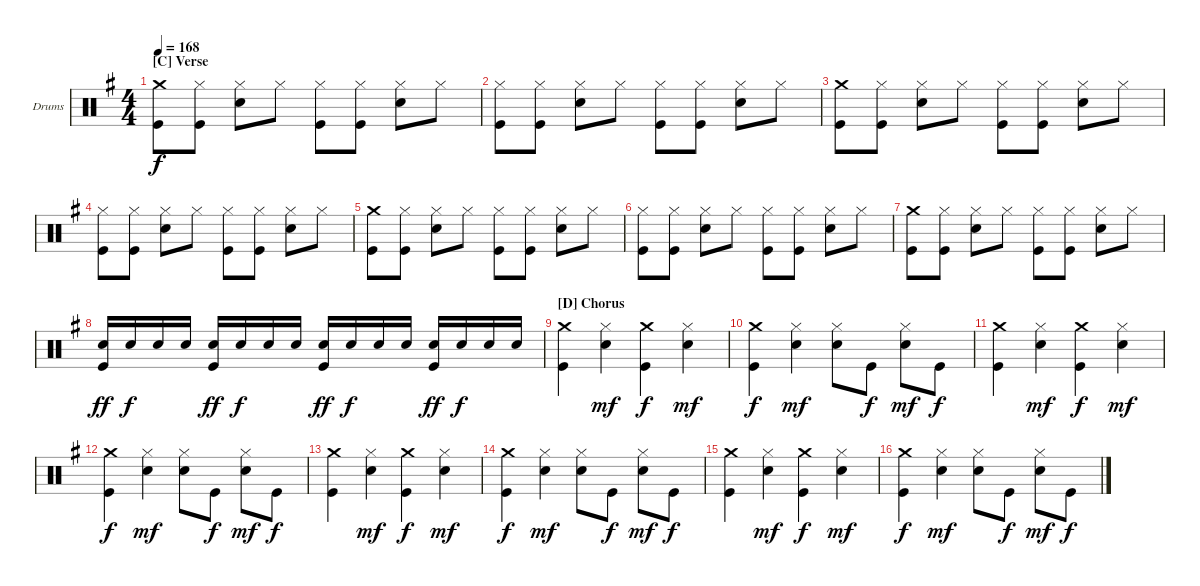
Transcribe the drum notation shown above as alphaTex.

\defaultSystemsLayout 4
\bracketExtendMode groupsimilarinstruments
\firstSystemTrackNameOrientation horizontal
\otherSystemsTrackNameOrientation horizontal
\track ("Drumkit" "Drums") {instrument percussion}
\staff {score}
\articulation defaults
\ts (4 4)
\section ("C" "Verse")
\tempo 168
\clef neutral
\ks g
("Crash medium (hit)" "Kick (hit)").8{dy f} ("Hi-Hat (closed)" "Kick (hit)").8 ("Hi-Hat (closed)" "Snare (hit) 2").8 "Hi-Hat (closed)".8 ("Hi-Hat (closed)" "Kick (hit)").8 ("Hi-Hat (closed)" "Kick (hit)").8 ("Hi-Hat (closed)" "Snare (hit) 2").8 "Hi-Hat (closed)".8 |
("Hi-Hat (closed)" "Kick (hit)").8 ("Hi-Hat (closed)" "Kick (hit)").8 ("Hi-Hat (closed)" "Snare (hit) 2").8 "Hi-Hat (closed)".8 ("Hi-Hat (closed)" "Kick (hit)").8 ("Hi-Hat (closed)" "Kick (hit)").8 ("Hi-Hat (closed)" "Snare (hit) 2").8 "Hi-Hat (closed)".8 |
("Crash medium (hit)" "Kick (hit)").8 ("Hi-Hat (closed)" "Kick (hit)").8 ("Hi-Hat (closed)" "Snare (hit) 2").8 "Hi-Hat (closed)".8 ("Hi-Hat (closed)" "Kick (hit)").8 ("Hi-Hat (closed)" "Kick (hit)").8 ("Hi-Hat (closed)" "Snare (hit) 2").8 "Hi-Hat (closed)".8 |
("Hi-Hat (closed)" "Kick (hit)").8 ("Hi-Hat (closed)" "Kick (hit)").8 ("Hi-Hat (closed)" "Snare (hit) 2").8 "Hi-Hat (closed)".8 ("Hi-Hat (closed)" "Kick (hit)").8 ("Hi-Hat (closed)" "Kick (hit)").8 ("Hi-Hat (closed)" "Snare (hit) 2").8 "Hi-Hat (closed)".8 |
("Crash medium (hit)" "Kick (hit)").8 ("Hi-Hat (closed)" "Kick (hit)").8 ("Hi-Hat (closed)" "Snare (hit) 2").8 "Hi-Hat (closed)".8 ("Hi-Hat (closed)" "Kick (hit)").8 ("Hi-Hat (closed)" "Kick (hit)").8 ("Hi-Hat (closed)" "Snare (hit) 2").8 "Hi-Hat (closed)".8 |
("Hi-Hat (closed)" "Kick (hit)").8 ("Hi-Hat (closed)" "Kick (hit)").8 ("Hi-Hat (closed)" "Snare (hit) 2").8 "Hi-Hat (closed)".8 ("Hi-Hat (closed)" "Kick (hit)").8 ("Hi-Hat (closed)" "Kick (hit)").8 ("Hi-Hat (closed)" "Snare (hit) 2").8 "Hi-Hat (closed)".8 |
("Crash medium (hit)" "Kick (hit)").8 ("Hi-Hat (closed)" "Kick (hit)").8 ("Hi-Hat (closed)" "Snare (hit) 2").8 "Hi-Hat (closed)".8 ("Hi-Hat (closed)" "Kick (hit)").8 ("Hi-Hat (closed)" "Kick (hit)").8 ("Hi-Hat (closed)" "Snare (hit) 2").8 "Hi-Hat (closed)".8 |
("Snare (hit) 2" "Kick (hit)").16{dy ff} "Snare (hit) 2".16{dy f} "Snare (hit) 2".16 "Snare (hit) 2".16 ("Snare (hit) 2" "Kick (hit)").16{dy ff} "Snare (hit) 2".16{dy f} "Snare (hit) 2".16 "Snare (hit) 2".16 ("Snare (hit) 2" "Kick (hit)").16{dy ff} "Snare (hit) 2".16{dy f} "Snare (hit) 2".16 "Snare (hit) 2".16 ("Snare (hit) 2" "Kick (hit)").16{dy ff} "Snare (hit) 2".16{dy f} "Snare (hit) 2".16 "Snare (hit) 2".16 |
\section ("D" "Chorus")
("Crash medium (hit)" "Kick (hit)").4 ("Hi-Hat (closed)" "Snare (hit) 2").4{dy mf} ("Crash medium (hit)" "Kick (hit)").4{dy f} ("Hi-Hat (closed)" "Snare (hit) 2").4{dy mf} |
("Crash medium (hit)" "Kick (hit)").4{dy f} ("Hi-Hat (closed)" "Snare (hit) 2").4{dy mf} ("Hi-Hat (closed)" "Snare (hit) 2").8 "Kick (hit)".8{dy f} ("Hi-Hat (closed)" "Snare (hit) 2").8{dy mf} "Kick (hit)".8{dy f} |
("Crash medium (hit)" "Kick (hit)").4 ("Hi-Hat (closed)" "Snare (hit) 2").4{dy mf} ("Crash medium (hit)" "Kick (hit)").4{dy f} ("Hi-Hat (closed)" "Snare (hit) 2").4{dy mf} |
("Crash medium (hit)" "Kick (hit)").4{dy f} ("Hi-Hat (closed)" "Snare (hit) 2").4{dy mf} ("Hi-Hat (closed)" "Snare (hit) 2").8 "Kick (hit)".8{dy f} ("Hi-Hat (closed)" "Snare (hit) 2").8{dy mf} "Kick (hit)".8{dy f} |
("Crash medium (hit)" "Kick (hit)").4 ("Hi-Hat (closed)" "Snare (hit) 2").4{dy mf} ("Crash medium (hit)" "Kick (hit)").4{dy f} ("Hi-Hat (closed)" "Snare (hit) 2").4{dy mf} |
("Crash medium (hit)" "Kick (hit)").4{dy f} ("Hi-Hat (closed)" "Snare (hit) 2").4{dy mf} ("Hi-Hat (closed)" "Snare (hit) 2").8 "Kick (hit)".8{dy f} ("Hi-Hat (closed)" "Snare (hit) 2").8{dy mf} "Kick (hit)".8{dy f} |
("Crash medium (hit)" "Kick (hit)").4 ("Hi-Hat (closed)" "Snare (hit) 2").4{dy mf} ("Crash medium (hit)" "Kick (hit)").4{dy f} ("Hi-Hat (closed)" "Snare (hit) 2").4{dy mf} |
("Crash medium (hit)" "Kick (hit)").4{dy f} ("Hi-Hat (closed)" "Snare (hit) 2").4{dy mf} ("Hi-Hat (closed)" "Snare (hit) 2").8 "Kick (hit)".8{dy f} ("Hi-Hat (closed)" "Snare (hit) 2").8{dy mf} "Kick (hit)".8{dy f}
